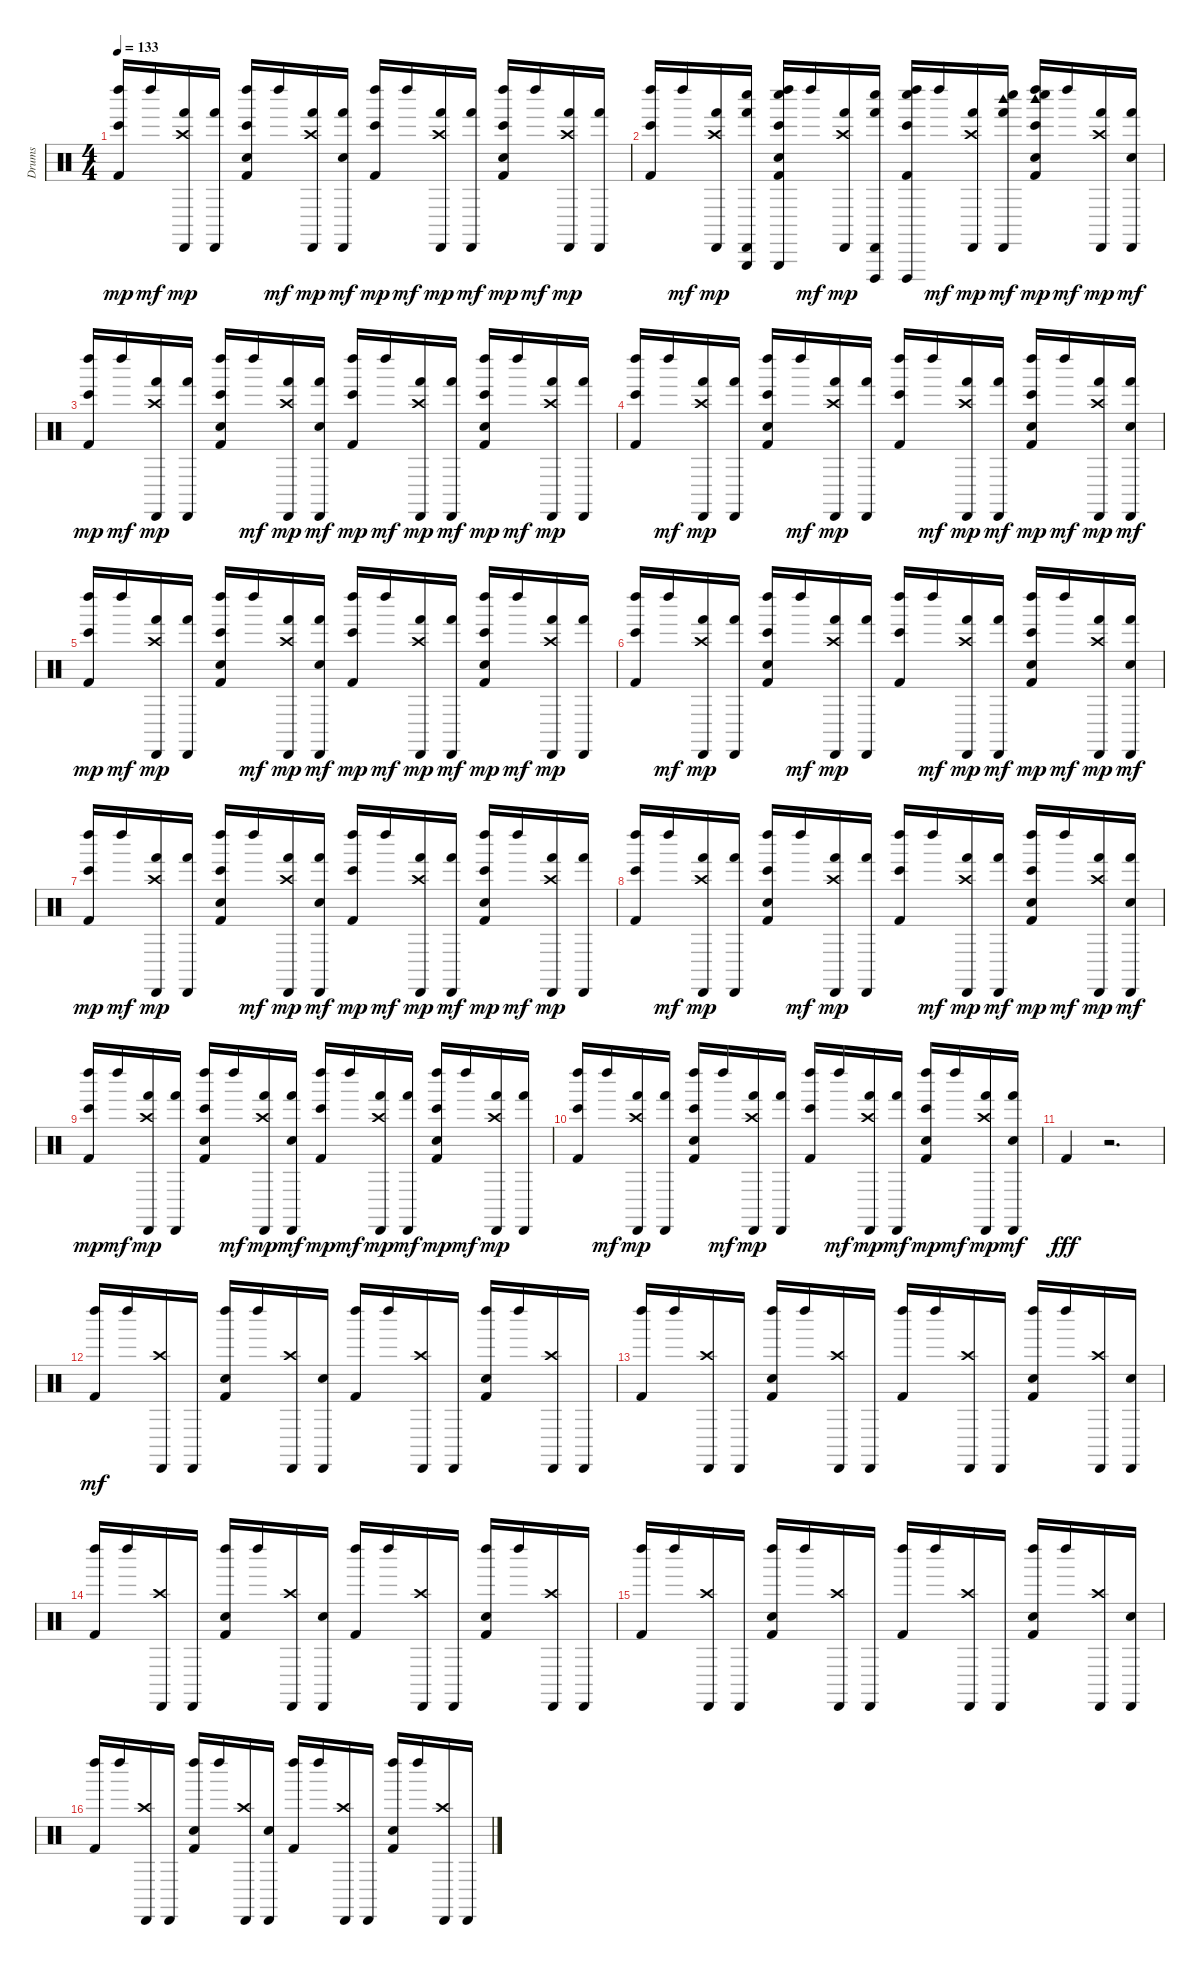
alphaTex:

\track ("Drums" "Drums") {instrument percussion}
\staff {score}
\articulation defaults
\ts (4 4)
\tempo 133
\clef neutral
\ks c
("Kick (hit) 2" "Left Maraca (hit)" "Bongo High (hit)").16{dy mp} "Left Maraca (hit)".16{dy mf} ("Crash high (hit)" "Cabasa (hit)" "Hand (hit)").16{dy mp} ("Cabasa (hit)" "Hand (hit)").16 ("Kick (hit) 2" "Hand Clap (hit)" "Left Maraca (hit)" "Bongo High (hit)").16 "Left Maraca (hit)".16{dy mf} ("Crash high (hit)" "Cabasa (hit)" "Hand (hit)").16{dy mp} ("Cabasa (hit)" "Hand (hit)" "Snare (hit) 2").16{dy mf} ("Kick (hit) 2" "Left Maraca (hit)" "Bongo High (hit)").16{dy mp} "Left Maraca (hit)".16{dy mf} ("Crash high (hit)" "Cabasa (hit)" "Hand (hit)").16{dy mp} ("Hand (hit)" "Cabasa (hit)").16{dy mf} ("Kick (hit) 2" "Hand Clap (hit)" "Left Maraca (hit)" "Bongo High (hit)").16{dy mp} "Left Maraca (hit)".16{dy mf} ("Crash high (hit)" "Cabasa (hit)" "Hand (hit)").16{dy mp} ("Cabasa (hit)" "Hand (hit)").16 |
("Kick (hit) 2" "Left Maraca (hit)" "Bongo High (hit)").16 "Left Maraca (hit)".16{dy mf} ("Crash high (hit)" "Cabasa (hit)" "Hand (hit)").16{dy mp} ("Cabasa (hit)" "Hand (hit)" "Triangle (hit)" "Whistle low (hit)").16 ("Kick (hit) 2" "Hand Clap (hit)" "Left Maraca (hit)" "Bongo High (hit)" "Triangle (hit)" "Whistle low (hit)").16 "Left Maraca (hit)".16{dy mf} ("Crash high (hit)" "Cabasa (hit)" "Hand (hit)").16{dy mp} ("Cabasa (hit)" "Hand (hit)" "Cuica (open)" "Whistle low (hit)").16 ("Kick (hit) 2" "Left Maraca (hit)" "Bongo High (hit)" "Cuica (open)" "Whistle low (hit)").16 "Left Maraca (hit)".16{dy mf} ("Crash high (hit)" "Cabasa (hit)" "Hand (hit)").16{dy mp} ("Hand (hit)" "Woodblock high (hit)" "Whistle low (hit)" "Cabasa (hit)").16{dy mf} ("Kick (hit) 2" "Hand Clap (hit)" "Left Maraca (hit)" "Bongo High (hit)" "Woodblock high (hit)" "Whistle low (hit)").16{dy mp} "Left Maraca (hit)".16{dy mf} ("Crash high (hit)" "Cabasa (hit)" "Hand (hit)").16{dy mp} ("Cabasa (hit)" "Hand (hit)" "Snare (hit) 2").16{dy mf} |
("Kick (hit) 2" "Left Maraca (hit)" "Bongo High (hit)").16{dy mp} "Left Maraca (hit)".16{dy mf} ("Crash high (hit)" "Cabasa (hit)" "Hand (hit)").16{dy mp} ("Cabasa (hit)" "Hand (hit)").16 ("Kick (hit) 2" "Hand Clap (hit)" "Left Maraca (hit)" "Bongo High (hit)").16 "Left Maraca (hit)".16{dy mf} ("Crash high (hit)" "Cabasa (hit)" "Hand (hit)").16{dy mp} ("Cabasa (hit)" "Hand (hit)" "Snare (hit) 2").16{dy mf} ("Kick (hit) 2" "Left Maraca (hit)" "Bongo High (hit)").16{dy mp} "Left Maraca (hit)".16{dy mf} ("Crash high (hit)" "Cabasa (hit)" "Hand (hit)").16{dy mp} ("Hand (hit)" "Cabasa (hit)").16{dy mf} ("Kick (hit) 2" "Hand Clap (hit)" "Left Maraca (hit)" "Bongo High (hit)").16{dy mp} "Left Maraca (hit)".16{dy mf} ("Crash high (hit)" "Cabasa (hit)" "Hand (hit)").16{dy mp} ("Cabasa (hit)" "Hand (hit)").16 |
("Kick (hit) 2" "Left Maraca (hit)" "Bongo High (hit)").16 "Left Maraca (hit)".16{dy mf} ("Crash high (hit)" "Cabasa (hit)" "Hand (hit)").16{dy mp} ("Cabasa (hit)" "Hand (hit)").16 ("Kick (hit) 2" "Hand Clap (hit)" "Left Maraca (hit)" "Bongo High (hit)").16 "Left Maraca (hit)".16{dy mf} ("Crash high (hit)" "Cabasa (hit)" "Hand (hit)").16{dy mp} ("Cabasa (hit)" "Hand (hit)").16 ("Kick (hit) 2" "Left Maraca (hit)" "Bongo High (hit)").16 "Left Maraca (hit)".16{dy mf} ("Crash high (hit)" "Cabasa (hit)" "Hand (hit)").16{dy mp} ("Hand (hit)" "Cabasa (hit)").16{dy mf} ("Kick (hit) 2" "Hand Clap (hit)" "Left Maraca (hit)" "Bongo High (hit)").16{dy mp} "Left Maraca (hit)".16{dy mf} ("Crash high (hit)" "Cabasa (hit)" "Hand (hit)").16{dy mp} ("Cabasa (hit)" "Hand (hit)" "Snare (hit) 2").16{dy mf} |
("Kick (hit) 2" "Left Maraca (hit)" "Bongo High (hit)").16{dy mp} "Left Maraca (hit)".16{dy mf} ("Crash high (hit)" "Cabasa (hit)" "Hand (hit)").16{dy mp} ("Cabasa (hit)" "Hand (hit)").16 ("Kick (hit) 2" "Hand Clap (hit)" "Left Maraca (hit)" "Bongo High (hit)").16 "Left Maraca (hit)".16{dy mf} ("Crash high (hit)" "Cabasa (hit)" "Hand (hit)").16{dy mp} ("Cabasa (hit)" "Hand (hit)" "Snare (hit) 2").16{dy mf} ("Kick (hit) 2" "Left Maraca (hit)" "Bongo High (hit)").16{dy mp} "Left Maraca (hit)".16{dy mf} ("Crash high (hit)" "Cabasa (hit)" "Hand (hit)").16{dy mp} ("Hand (hit)" "Cabasa (hit)").16{dy mf} ("Kick (hit) 2" "Hand Clap (hit)" "Left Maraca (hit)" "Bongo High (hit)").16{dy mp} "Left Maraca (hit)".16{dy mf} ("Crash high (hit)" "Cabasa (hit)" "Hand (hit)").16{dy mp} ("Cabasa (hit)" "Hand (hit)").16 |
("Kick (hit) 2" "Left Maraca (hit)" "Bongo High (hit)").16 "Left Maraca (hit)".16{dy mf} ("Crash high (hit)" "Cabasa (hit)" "Hand (hit)").16{dy mp} ("Cabasa (hit)" "Hand (hit)").16 ("Kick (hit) 2" "Hand Clap (hit)" "Left Maraca (hit)" "Bongo High (hit)").16 "Left Maraca (hit)".16{dy mf} ("Crash high (hit)" "Cabasa (hit)" "Hand (hit)").16{dy mp} ("Cabasa (hit)" "Hand (hit)").16 ("Kick (hit) 2" "Left Maraca (hit)" "Bongo High (hit)").16 "Left Maraca (hit)".16{dy mf} ("Crash high (hit)" "Cabasa (hit)" "Hand (hit)").16{dy mp} ("Hand (hit)" "Cabasa (hit)").16{dy mf} ("Kick (hit) 2" "Hand Clap (hit)" "Left Maraca (hit)" "Bongo High (hit)").16{dy mp} "Left Maraca (hit)".16{dy mf} ("Crash high (hit)" "Cabasa (hit)" "Hand (hit)").16{dy mp} ("Cabasa (hit)" "Hand (hit)" "Snare (hit) 2").16{dy mf} |
("Kick (hit) 2" "Left Maraca (hit)" "Bongo High (hit)").16{dy mp} "Left Maraca (hit)".16{dy mf} ("Crash high (hit)" "Cabasa (hit)" "Hand (hit)").16{dy mp} ("Cabasa (hit)" "Hand (hit)").16 ("Kick (hit) 2" "Hand Clap (hit)" "Left Maraca (hit)" "Bongo High (hit)").16 "Left Maraca (hit)".16{dy mf} ("Crash high (hit)" "Cabasa (hit)" "Hand (hit)").16{dy mp} ("Cabasa (hit)" "Hand (hit)" "Snare (hit) 2").16{dy mf} ("Kick (hit) 2" "Left Maraca (hit)" "Bongo High (hit)").16{dy mp} "Left Maraca (hit)".16{dy mf} ("Crash high (hit)" "Cabasa (hit)" "Hand (hit)").16{dy mp} ("Hand (hit)" "Cabasa (hit)").16{dy mf} ("Kick (hit) 2" "Hand Clap (hit)" "Left Maraca (hit)" "Bongo High (hit)").16{dy mp} "Left Maraca (hit)".16{dy mf} ("Crash high (hit)" "Cabasa (hit)" "Hand (hit)").16{dy mp} ("Cabasa (hit)" "Hand (hit)").16 |
("Kick (hit) 2" "Left Maraca (hit)" "Bongo High (hit)").16 "Left Maraca (hit)".16{dy mf} ("Crash high (hit)" "Cabasa (hit)" "Hand (hit)").16{dy mp} ("Cabasa (hit)" "Hand (hit)").16 ("Kick (hit) 2" "Hand Clap (hit)" "Left Maraca (hit)" "Bongo High (hit)").16 "Left Maraca (hit)".16{dy mf} ("Crash high (hit)" "Cabasa (hit)" "Hand (hit)").16{dy mp} ("Cabasa (hit)" "Hand (hit)").16 ("Kick (hit) 2" "Left Maraca (hit)" "Bongo High (hit)").16 "Left Maraca (hit)".16{dy mf} ("Crash high (hit)" "Cabasa (hit)" "Hand (hit)").16{dy mp} ("Hand (hit)" "Cabasa (hit)").16{dy mf} ("Kick (hit) 2" "Hand Clap (hit)" "Left Maraca (hit)" "Bongo High (hit)").16{dy mp} "Left Maraca (hit)".16{dy mf} ("Crash high (hit)" "Cabasa (hit)" "Hand (hit)").16{dy mp} ("Cabasa (hit)" "Hand (hit)" "Snare (hit) 2").16{dy mf} |
("Kick (hit) 2" "Left Maraca (hit)" "Bongo High (hit)").16{dy mp} "Left Maraca (hit)".16{dy mf} ("Crash high (hit)" "Cabasa (hit)" "Hand (hit)").16{dy mp} ("Cabasa (hit)" "Hand (hit)").16 ("Kick (hit) 2" "Hand Clap (hit)" "Left Maraca (hit)" "Bongo High (hit)").16 "Left Maraca (hit)".16{dy mf} ("Crash high (hit)" "Cabasa (hit)" "Hand (hit)").16{dy mp} ("Cabasa (hit)" "Hand (hit)" "Snare (hit) 2").16{dy mf} ("Kick (hit) 2" "Left Maraca (hit)" "Bongo High (hit)").16{dy mp} "Left Maraca (hit)".16{dy mf} ("Crash high (hit)" "Cabasa (hit)" "Hand (hit)").16{dy mp} ("Hand (hit)" "Cabasa (hit)").16{dy mf} ("Kick (hit) 2" "Hand Clap (hit)" "Left Maraca (hit)" "Bongo High (hit)").16{dy mp} "Left Maraca (hit)".16{dy mf} ("Crash high (hit)" "Cabasa (hit)" "Hand (hit)").16{dy mp} ("Cabasa (hit)" "Hand (hit)").16 |
("Kick (hit) 2" "Left Maraca (hit)" "Bongo High (hit)").16 "Left Maraca (hit)".16{dy mf} ("Crash high (hit)" "Cabasa (hit)" "Hand (hit)").16{dy mp} ("Cabasa (hit)" "Hand (hit)").16 ("Kick (hit) 2" "Hand Clap (hit)" "Left Maraca (hit)" "Bongo High (hit)").16 "Left Maraca (hit)".16{dy mf} ("Crash high (hit)" "Cabasa (hit)" "Hand (hit)").16{dy mp} ("Cabasa (hit)" "Hand (hit)").16 ("Kick (hit) 2" "Left Maraca (hit)" "Bongo High (hit)").16 "Left Maraca (hit)".16{dy mf} ("Crash high (hit)" "Cabasa (hit)" "Hand (hit)").16{dy mp} ("Hand (hit)" "Cabasa (hit)").16{dy mf} ("Kick (hit) 2" "Hand Clap (hit)" "Left Maraca (hit)" "Bongo High (hit)").16{dy mp} "Left Maraca (hit)".16{dy mf} ("Crash high (hit)" "Cabasa (hit)" "Hand (hit)").16{dy mp} ("Cabasa (hit)" "Hand (hit)" "Snare (hit) 2").16{dy mf} |
"Kick (hit) 2".4{dy fff} r.2{d} |
("Kick (hit) 2" "Left Maraca (hit)").16{dy mf} "Left Maraca (hit)".16 ("Crash high (hit)" "Cabasa (hit)").16 "Cabasa (hit)".16 ("Kick (hit) 2" "Hand Clap (hit)" "Left Maraca (hit)").16 "Left Maraca (hit)".16 ("Crash high (hit)" "Cabasa (hit)").16 ("Cabasa (hit)" "Snare (hit) 2").16 ("Kick (hit) 2" "Left Maraca (hit)").16 "Left Maraca (hit)".16 ("Crash high (hit)" "Cabasa (hit)").16 "Cabasa (hit)".16 ("Kick (hit) 2" "Hand Clap (hit)" "Left Maraca (hit)").16 "Left Maraca (hit)".16 ("Crash high (hit)" "Cabasa (hit)").16 "Cabasa (hit)".16 |
("Kick (hit) 2" "Left Maraca (hit)").16 "Left Maraca (hit)".16 ("Crash high (hit)" "Cabasa (hit)").16 "Cabasa (hit)".16 ("Kick (hit) 2" "Hand Clap (hit)" "Left Maraca (hit)").16 "Left Maraca (hit)".16 ("Crash high (hit)" "Cabasa (hit)").16 "Cabasa (hit)".16 ("Kick (hit) 2" "Left Maraca (hit)").16 "Left Maraca (hit)".16 ("Crash high (hit)" "Cabasa (hit)").16 "Cabasa (hit)".16 ("Kick (hit) 2" "Hand Clap (hit)" "Left Maraca (hit)").16 "Left Maraca (hit)".16 ("Crash high (hit)" "Cabasa (hit)").16 ("Cabasa (hit)" "Snare (hit) 2").16 |
("Kick (hit) 2" "Left Maraca (hit)").16 "Left Maraca (hit)".16 ("Crash high (hit)" "Cabasa (hit)").16 "Cabasa (hit)".16 ("Kick (hit) 2" "Hand Clap (hit)" "Left Maraca (hit)").16 "Left Maraca (hit)".16 ("Crash high (hit)" "Cabasa (hit)").16 ("Cabasa (hit)" "Snare (hit) 2").16 ("Kick (hit) 2" "Left Maraca (hit)").16 "Left Maraca (hit)".16 ("Crash high (hit)" "Cabasa (hit)").16 "Cabasa (hit)".16 ("Kick (hit) 2" "Hand Clap (hit)" "Left Maraca (hit)").16 "Left Maraca (hit)".16 ("Crash high (hit)" "Cabasa (hit)").16 "Cabasa (hit)".16 |
("Kick (hit) 2" "Left Maraca (hit)").16 "Left Maraca (hit)".16 ("Crash high (hit)" "Cabasa (hit)").16 "Cabasa (hit)".16 ("Kick (hit) 2" "Hand Clap (hit)" "Left Maraca (hit)").16 "Left Maraca (hit)".16 ("Crash high (hit)" "Cabasa (hit)").16 "Cabasa (hit)".16 ("Kick (hit) 2" "Left Maraca (hit)").16 "Left Maraca (hit)".16 ("Crash high (hit)" "Cabasa (hit)").16 "Cabasa (hit)".16 ("Kick (hit) 2" "Hand Clap (hit)" "Left Maraca (hit)").16 "Left Maraca (hit)".16 ("Crash high (hit)" "Cabasa (hit)").16 ("Cabasa (hit)" "Snare (hit) 2").16 |
("Kick (hit) 2" "Left Maraca (hit)").16 "Left Maraca (hit)".16 ("Crash high (hit)" "Cabasa (hit)").16 "Cabasa (hit)".16 ("Kick (hit) 2" "Hand Clap (hit)" "Left Maraca (hit)").16 "Left Maraca (hit)".16 ("Crash high (hit)" "Cabasa (hit)").16 ("Cabasa (hit)" "Snare (hit) 2").16 ("Kick (hit) 2" "Left Maraca (hit)").16 "Left Maraca (hit)".16 ("Crash high (hit)" "Cabasa (hit)").16 "Cabasa (hit)".16 ("Kick (hit) 2" "Hand Clap (hit)" "Left Maraca (hit)").16 "Left Maraca (hit)".16 ("Crash high (hit)" "Cabasa (hit)").16 "Cabasa (hit)".16
